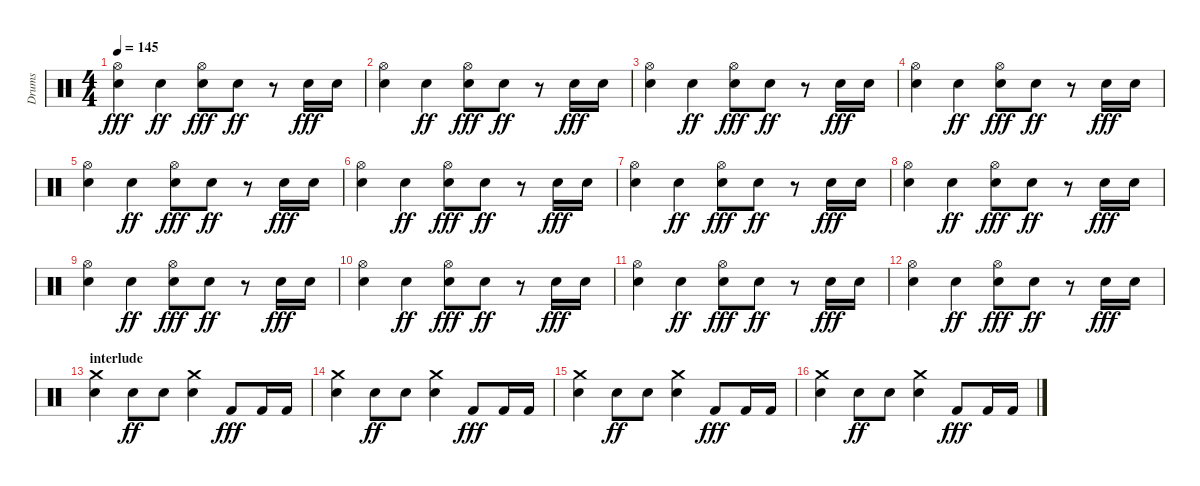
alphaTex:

\track ("Drums" "Drums") {instrument percussion}
\staff {score}
\articulation defaults
\ts (4 4)
\tempo 145
\clef neutral
\ks c
("Electric Snare (hit)" "Hi-Hat (open)").4{dy fff} "Electric Snare (hit)".4{dy ff} ("Electric Snare (hit)" "Hi-Hat (open)").8{dy fff} "Electric Snare (hit)".8{dy ff} r.8 "Electric Snare (hit)".16{dy fff} "Electric Snare (hit)".16 |
("Electric Snare (hit)" "Hi-Hat (open)").4 "Electric Snare (hit)".4{dy ff} ("Electric Snare (hit)" "Hi-Hat (open)").8{dy fff} "Electric Snare (hit)".8{dy ff} r.8 "Electric Snare (hit)".16{dy fff} "Electric Snare (hit)".16 |
("Electric Snare (hit)" "Hi-Hat (open)").4 "Electric Snare (hit)".4{dy ff} ("Electric Snare (hit)" "Hi-Hat (open)").8{dy fff} "Electric Snare (hit)".8{dy ff} r.8 "Electric Snare (hit)".16{dy fff} "Electric Snare (hit)".16 |
("Electric Snare (hit)" "Hi-Hat (open)").4 "Electric Snare (hit)".4{dy ff} ("Electric Snare (hit)" "Hi-Hat (open)").8{dy fff} "Electric Snare (hit)".8{dy ff} r.8 "Electric Snare (hit)".16{dy fff} "Electric Snare (hit)".16 |
("Electric Snare (hit)" "Hi-Hat (open)").4 "Electric Snare (hit)".4{dy ff} ("Electric Snare (hit)" "Hi-Hat (open)").8{dy fff} "Electric Snare (hit)".8{dy ff} r.8 "Electric Snare (hit)".16{dy fff} "Electric Snare (hit)".16 |
("Electric Snare (hit)" "Hi-Hat (open)").4 "Electric Snare (hit)".4{dy ff} ("Electric Snare (hit)" "Hi-Hat (open)").8{dy fff} "Electric Snare (hit)".8{dy ff} r.8 "Electric Snare (hit)".16{dy fff} "Electric Snare (hit)".16 |
("Electric Snare (hit)" "Hi-Hat (open)").4 "Electric Snare (hit)".4{dy ff} ("Electric Snare (hit)" "Hi-Hat (open)").8{dy fff} "Electric Snare (hit)".8{dy ff} r.8 "Electric Snare (hit)".16{dy fff} "Electric Snare (hit)".16 |
("Electric Snare (hit)" "Hi-Hat (open)").4 "Electric Snare (hit)".4{dy ff} ("Electric Snare (hit)" "Hi-Hat (open)").8{dy fff} "Electric Snare (hit)".8{dy ff} r.8 "Electric Snare (hit)".16{dy fff} "Electric Snare (hit)".16 |
("Electric Snare (hit)" "Hi-Hat (open)").4 "Electric Snare (hit)".4{dy ff} ("Electric Snare (hit)" "Hi-Hat (open)").8{dy fff} "Electric Snare (hit)".8{dy ff} r.8 "Electric Snare (hit)".16{dy fff} "Electric Snare (hit)".16 |
("Electric Snare (hit)" "Hi-Hat (open)").4 "Electric Snare (hit)".4{dy ff} ("Electric Snare (hit)" "Hi-Hat (open)").8{dy fff} "Electric Snare (hit)".8{dy ff} r.8 "Electric Snare (hit)".16{dy fff} "Electric Snare (hit)".16 |
("Electric Snare (hit)" "Hi-Hat (open)").4 "Electric Snare (hit)".4{dy ff} ("Electric Snare (hit)" "Hi-Hat (open)").8{dy fff} "Electric Snare (hit)".8{dy ff} r.8 "Electric Snare (hit)".16{dy fff} "Electric Snare (hit)".16 |
("Electric Snare (hit)" "Hi-Hat (open)").4 "Electric Snare (hit)".4{dy ff} ("Electric Snare (hit)" "Hi-Hat (open)").8{dy fff} "Electric Snare (hit)".8{dy ff} r.8 "Electric Snare (hit)".16{dy fff} "Electric Snare (hit)".16 |
\section ("" "interlude")
("Snare (hit) 2" "Crash medium (hit)").4 "Snare (hit) 2".8{dy ff} "Snare (hit) 2".8 ("Crash medium (hit)" "Snare (hit) 2").4 "Kick (hit) 2".8{dy fff} "Kick (hit) 2".16 "Kick (hit) 2".16 |
("Snare (hit) 2" "Crash medium (hit)").4 "Snare (hit) 2".8{dy ff} "Snare (hit) 2".8 ("Crash medium (hit)" "Snare (hit) 2").4 "Kick (hit) 2".8{dy fff} "Kick (hit) 2".16 "Kick (hit) 2".16 |
("Snare (hit) 2" "Crash medium (hit)").4 "Snare (hit) 2".8{dy ff} "Snare (hit) 2".8 ("Crash medium (hit)" "Snare (hit) 2").4 "Kick (hit) 2".8{dy fff} "Kick (hit) 2".16 "Kick (hit) 2".16 |
("Snare (hit) 2" "Crash medium (hit)").4 "Snare (hit) 2".8{dy ff} "Snare (hit) 2".8 ("Crash medium (hit)" "Snare (hit) 2").4 "Kick (hit) 2".8{dy fff} "Kick (hit) 2".16 "Kick (hit) 2".16
